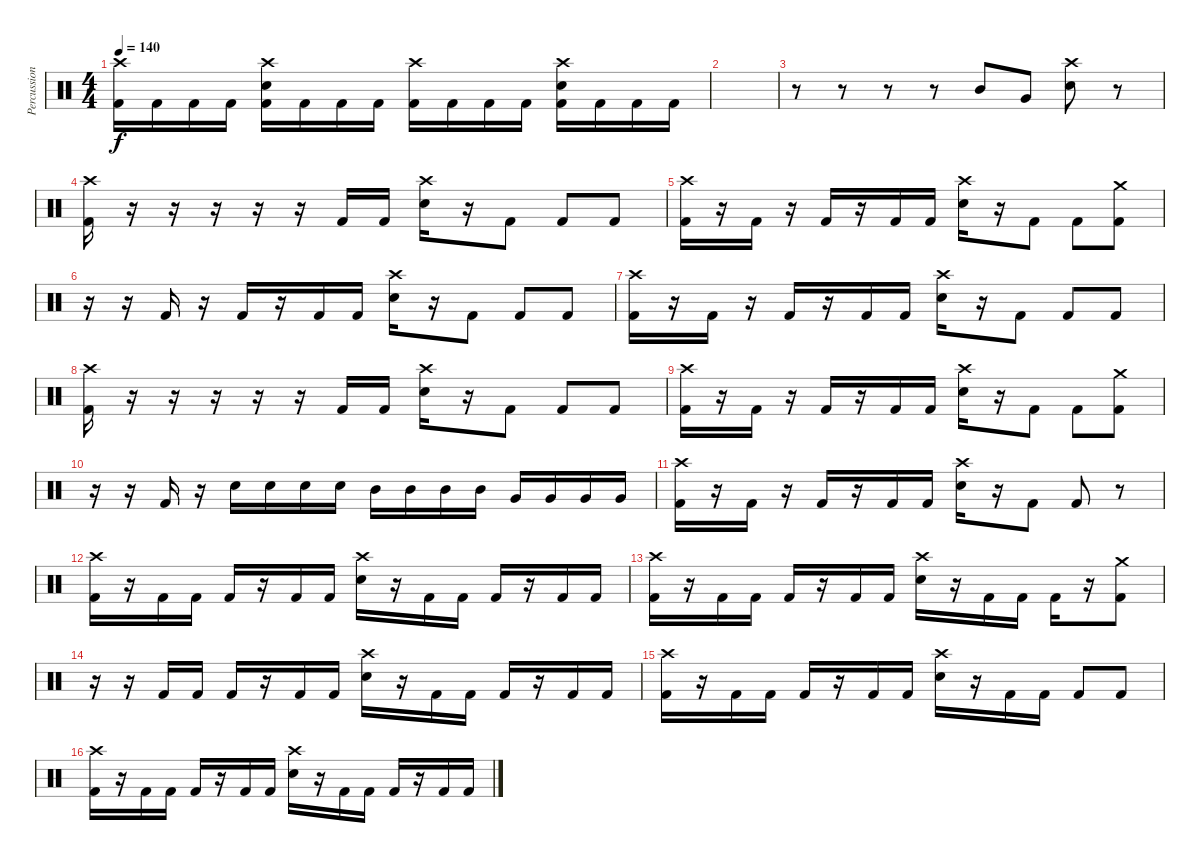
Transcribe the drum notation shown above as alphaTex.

\track ("Percussion" "Percussion") {instrument percussion}
\staff {score}
\articulation defaults
\ts (4 4)
\tempo 140
\clef neutral
\ks c
("Crash high (hit)" "Kick (hit) 2").16{dy f} "Kick (hit) 2".16 "Kick (hit) 2".16 "Kick (hit) 2".16 ("Crash high (hit)" "Electric Snare (hit)" "Kick (hit) 2").16 "Kick (hit) 2".16 "Kick (hit) 2".16 "Kick (hit) 2".16 ("Crash high (hit)" "Kick (hit) 2").16 "Kick (hit) 2".16 "Kick (hit) 2".16 "Kick (hit) 2".16 ("Crash high (hit)" "Electric Snare (hit)" "Kick (hit) 2").16 "Kick (hit) 2".16 "Kick (hit) 2".16 "Kick (hit) 2".16 |
|
r.8 r.8 r.8 r.8 "Mid Tom (hit)".8 "Very Low Tom (hit)".8 ("Crash high (hit)" "Electric Snare (hit)").8 r.8 |
("Crash high (hit)" "Kick (hit) 2").16 r.16 r.16 r.16 r.16 r.16 "Kick (hit) 2".16 "Kick (hit) 2".16 ("Crash high (hit)" "Electric Snare (hit)").16 r.16 "Kick (hit) 2".8 "Kick (hit) 2".8 "Kick (hit) 2".8 |
("Crash high (hit)" "Kick (hit) 2").16 r.16 "Kick (hit) 2".16 r.16 "Kick (hit) 2".16 r.16 "Kick (hit) 2".16 "Kick (hit) 2".16 ("Crash high (hit)" "Electric Snare (hit)").16 r.16 "Kick (hit) 2".8 "Kick (hit) 2".8 ("Crash medium (hit)" "Kick (hit) 2").8 |
r.16 r.16 "Kick (hit) 2".16 r.16 "Kick (hit) 2".16 r.16 "Kick (hit) 2".16 "Kick (hit) 2".16 ("Crash high (hit)" "Electric Snare (hit)").16 r.16 "Kick (hit) 2".8 "Kick (hit) 2".8 "Kick (hit) 2".8 |
("Crash high (hit)" "Kick (hit) 2").16 r.16 "Kick (hit) 2".16 r.16 "Kick (hit) 2".16 r.16 "Kick (hit) 2".16 "Kick (hit) 2".16 ("Crash high (hit)" "Electric Snare (hit)").16 r.16 "Kick (hit) 2".8 "Kick (hit) 2".8 "Kick (hit) 2".8 |
("Crash high (hit)" "Kick (hit) 2").16 r.16 r.16 r.16 r.16 r.16 "Kick (hit) 2".16 "Kick (hit) 2".16 ("Crash high (hit)" "Electric Snare (hit)").16 r.16 "Kick (hit) 2".8 "Kick (hit) 2".8 "Kick (hit) 2".8 |
("Crash high (hit)" "Kick (hit) 2").16 r.16 "Kick (hit) 2".16 r.16 "Kick (hit) 2".16 r.16 "Kick (hit) 2".16 "Kick (hit) 2".16 ("Crash high (hit)" "Electric Snare (hit)").16 r.16 "Kick (hit) 2".8 "Kick (hit) 2".8 ("Crash medium (hit)" "Kick (hit) 2").8 |
r.16 r.16 "Kick (hit) 2".16 r.16 "Electric Snare (hit)".16 "Electric Snare (hit)".16 "Electric Snare (hit)".16 "Electric Snare (hit)".16 "Mid Tom (hit)".16 "Mid Tom (hit)".16 "Mid Tom (hit)".16 "Mid Tom (hit)".16 "Very Low Tom (hit)".16 "Very Low Tom (hit)".16 "Very Low Tom (hit)".16 "Very Low Tom (hit)".16 |
("Crash high (hit)" "Kick (hit) 2").16 r.16 "Kick (hit) 2".16 r.16 "Kick (hit) 2".16 r.16 "Kick (hit) 2".16 "Kick (hit) 2".16 ("Crash high (hit)" "Electric Snare (hit)").16 r.16 "Kick (hit) 2".8 "Kick (hit) 2".8 r.8 |
("Crash high (hit)" "Kick (hit) 2").16 r.16 "Kick (hit) 2".16 "Kick (hit) 2".16 "Kick (hit) 2".16 r.16 "Kick (hit) 2".16 "Kick (hit) 2".16 ("Crash high (hit)" "Electric Snare (hit)").16 r.16 "Kick (hit) 2".16 "Kick (hit) 2".16 "Kick (hit) 2".16 r.16 "Kick (hit) 2".16 "Kick (hit) 2".16 |
("Crash high (hit)" "Kick (hit) 2").16 r.16 "Kick (hit) 2".16 "Kick (hit) 2".16 "Kick (hit) 2".16 r.16 "Kick (hit) 2".16 "Kick (hit) 2".16 ("Crash high (hit)" "Electric Snare (hit)").16 r.16 "Kick (hit) 2".16 "Kick (hit) 2".16 "Kick (hit) 2".16 r.16 ("Crash medium (hit)" "Kick (hit) 2").8 |
r.16 r.16 "Kick (hit) 2".16 "Kick (hit) 2".16 "Kick (hit) 2".16 r.16 "Kick (hit) 2".16 "Kick (hit) 2".16 ("Crash high (hit)" "Electric Snare (hit)").16 r.16 "Kick (hit) 2".16 "Kick (hit) 2".16 "Kick (hit) 2".16 r.16 "Kick (hit) 2".16 "Kick (hit) 2".16 |
("Crash high (hit)" "Kick (hit) 2").16 r.16 "Kick (hit) 2".16 "Kick (hit) 2".16 "Kick (hit) 2".16 r.16 "Kick (hit) 2".16 "Kick (hit) 2".16 ("Crash high (hit)" "Electric Snare (hit)").16 r.16 "Kick (hit) 2".16 "Kick (hit) 2".16 "Kick (hit) 2".8 "Kick (hit) 2".8 |
("Crash high (hit)" "Kick (hit) 2").16 r.16 "Kick (hit) 2".16 "Kick (hit) 2".16 "Kick (hit) 2".16 r.16 "Kick (hit) 2".16 "Kick (hit) 2".16 ("Crash high (hit)" "Electric Snare (hit)").16 r.16 "Kick (hit) 2".16 "Kick (hit) 2".16 "Kick (hit) 2".16 r.16 "Kick (hit) 2".16 "Kick (hit) 2".16
